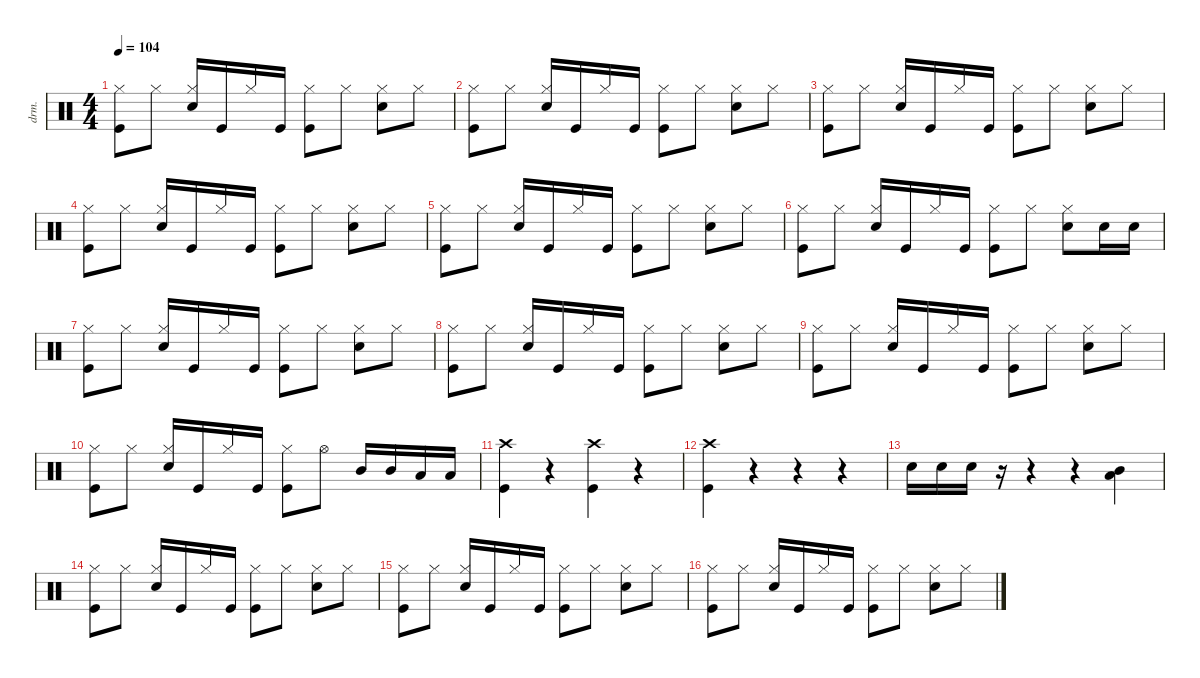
\defaultSystemsLayout 4
\hideDynamics
\bracketExtendMode nobrackets
\otherSystemsTrackNameOrientation horizontal
\track ("Drumkit" "drm.") {instrument percussion}
\staff {score}
\articulation defaults
\ts (4 4)
\tempo 104
\clef neutral
\ks c
("Kick (hit)" "Hi-Hat (closed)").8{dy mf beam Down} "Hi-Hat (closed)".8{beam Down} ("Hi-Hat (closed)" "Snare (hit) 2").16{beam Up} "Kick (hit)".16{beam Up} "Hi-Hat (closed)".16{beam Up} "Kick (hit)".16{beam Up} ("Hi-Hat (closed)" "Kick (hit)").8{beam Down} "Hi-Hat (closed)".8{beam Down} ("Hi-Hat (closed)" "Snare (hit) 2").8{beam Down} "Hi-Hat (closed)".8{beam Down} |
("Kick (hit)" "Hi-Hat (closed)").8{beam Down} "Hi-Hat (closed)".8{beam Down} ("Hi-Hat (closed)" "Snare (hit) 2").16{beam Up} "Kick (hit)".16{beam Up} "Hi-Hat (closed)".16{beam Up} "Kick (hit)".16{beam Up} ("Hi-Hat (closed)" "Kick (hit)").8{beam Down} "Hi-Hat (closed)".8{beam Down} ("Hi-Hat (closed)" "Snare (hit) 2").8{beam Down} "Hi-Hat (closed)".8{beam Down} |
("Kick (hit)" "Hi-Hat (closed)").8{beam Down} "Hi-Hat (closed)".8{beam Down} ("Hi-Hat (closed)" "Snare (hit) 2").16{beam Up} "Kick (hit)".16{beam Up} "Hi-Hat (closed)".16{beam Up} "Kick (hit)".16{beam Up} ("Hi-Hat (closed)" "Kick (hit)").8{beam Down} "Hi-Hat (closed)".8{beam Down} ("Hi-Hat (closed)" "Snare (hit) 2").8{beam Down} "Hi-Hat (closed)".8{beam Down} |
("Kick (hit)" "Hi-Hat (closed)").8{beam Down} "Hi-Hat (closed)".8{beam Down} ("Hi-Hat (closed)" "Snare (hit) 2").16{beam Up} "Kick (hit)".16{beam Up} "Hi-Hat (closed)".16{beam Up} "Kick (hit)".16{beam Up} ("Hi-Hat (closed)" "Kick (hit)").8{beam Down} "Hi-Hat (closed)".8{beam Down} ("Hi-Hat (closed)" "Snare (hit) 2").8{beam Down} "Hi-Hat (closed)".8{beam Down} |
("Kick (hit)" "Hi-Hat (closed)").8{beam Down} "Hi-Hat (closed)".8{beam Down} ("Hi-Hat (closed)" "Snare (hit) 2").16{beam Up} "Kick (hit)".16{beam Up} "Hi-Hat (closed)".16{beam Up} "Kick (hit)".16{beam Up} ("Hi-Hat (closed)" "Kick (hit)").8{beam Down} "Hi-Hat (closed)".8{beam Down} ("Hi-Hat (closed)" "Snare (hit) 2").8{beam Down} "Hi-Hat (closed)".8{beam Down} |
("Kick (hit)" "Hi-Hat (closed)").8{beam Down} "Hi-Hat (closed)".8{beam Down} ("Hi-Hat (closed)" "Snare (hit) 2").16{beam Up} "Kick (hit)".16{beam Up} "Hi-Hat (closed)".16{beam Up} "Kick (hit)".16{beam Up} ("Hi-Hat (closed)" "Kick (hit)").8{beam Down} "Hi-Hat (closed)".8{beam Down} ("Hi-Hat (closed)" "Snare (hit) 2").8{beam Down} "Snare (hit) 2".16{beam Down} "Snare (hit) 2".16{beam Down} |
("Kick (hit)" "Hi-Hat (closed)").8{beam Down} "Hi-Hat (closed)".8{beam Down} ("Hi-Hat (closed)" "Snare (hit) 2").16{beam Up} "Kick (hit)".16{beam Up} "Hi-Hat (closed)".16{beam Up} "Kick (hit)".16{beam Up} ("Hi-Hat (closed)" "Kick (hit)").8{beam Down} "Hi-Hat (closed)".8{beam Down} ("Hi-Hat (closed)" "Snare (hit) 2").8{beam Down} "Hi-Hat (closed)".8{beam Down} |
("Kick (hit)" "Hi-Hat (closed)").8{beam Down} "Hi-Hat (closed)".8{beam Down} ("Hi-Hat (closed)" "Snare (hit) 2").16{beam Up} "Kick (hit)".16{beam Up} "Hi-Hat (closed)".16{beam Up} "Kick (hit)".16{beam Up} ("Hi-Hat (closed)" "Kick (hit)").8{beam Down} "Hi-Hat (closed)".8{beam Down} ("Hi-Hat (closed)" "Snare (hit) 2").8{beam Down} "Hi-Hat (closed)".8{beam Down} |
("Kick (hit)" "Hi-Hat (closed)").8{beam Down} "Hi-Hat (closed)".8{beam Down} ("Hi-Hat (closed)" "Snare (hit) 2").16{beam Up} "Kick (hit)".16{beam Up} "Hi-Hat (closed)".16{beam Up} "Kick (hit)".16{beam Up} ("Hi-Hat (closed)" "Kick (hit)").8{beam Down} "Hi-Hat (closed)".8{beam Down} ("Hi-Hat (closed)" "Snare (hit) 2").8{beam Down} "Hi-Hat (closed)".8{beam Down} |
("Kick (hit)" "Hi-Hat (closed)").8{beam Down} "Hi-Hat (closed)".8{beam Down} ("Hi-Hat (closed)" "Snare (hit) 2").16{beam Up} "Kick (hit)".16{beam Up} "Hi-Hat (closed)".16{beam Up} "Kick (hit)".16{beam Up} ("Hi-Hat (closed)" "Kick (hit)").8{beam Down} "Hi-Hat (open)".8{beam Down} "Mid Tom (hit)".16{beam Up} "Mid Tom (hit)".16{beam Up} "Low Tom (hit)".16{beam Up} "Low Tom (hit)".16{beam Up} |
("Crash high (hit)" "Kick (hit)").4{beam Down} r.4{beam Down} ("Crash high (hit)" "Kick (hit)").4{beam Down} r.4{beam Down} |
("Crash high (hit)" "Kick (hit)").4{beam Down} r.4{beam Down} r.4{beam Down} r.4{beam Down} |
"Snare (hit) 2".16{beam Down} "Snare (hit) 2".16{beam Down} "Snare (hit) 2".16{beam Down} r.16{beam Down} r.4{beam Down} r.4{beam Down} ("Mid Tom (hit)" "Low Tom (hit)").4{beam Down} |
("Kick (hit)" "Hi-Hat (closed)").8{beam Down} "Hi-Hat (closed)".8{beam Down} ("Hi-Hat (closed)" "Snare (hit) 2").16{beam Up} "Kick (hit)".16{beam Up} "Hi-Hat (closed)".16{beam Up} "Kick (hit)".16{beam Up} ("Hi-Hat (closed)" "Kick (hit)").8{beam Down} "Hi-Hat (closed)".8{beam Down} ("Hi-Hat (closed)" "Snare (hit) 2").8{beam Down} "Hi-Hat (closed)".8{beam Down} |
("Kick (hit)" "Hi-Hat (closed)").8{beam Down} "Hi-Hat (closed)".8{beam Down} ("Hi-Hat (closed)" "Snare (hit) 2").16{beam Up} "Kick (hit)".16{beam Up} "Hi-Hat (closed)".16{beam Up} "Kick (hit)".16{beam Up} ("Hi-Hat (closed)" "Kick (hit)").8{beam Down} "Hi-Hat (closed)".8{beam Down} ("Hi-Hat (closed)" "Snare (hit) 2").8{beam Down} "Hi-Hat (closed)".8{beam Down} |
("Kick (hit)" "Hi-Hat (closed)").8{beam Down} "Hi-Hat (closed)".8{beam Down} ("Hi-Hat (closed)" "Snare (hit) 2").16{beam Up} "Kick (hit)".16{beam Up} "Hi-Hat (closed)".16{beam Up} "Kick (hit)".16{beam Up} ("Hi-Hat (closed)" "Kick (hit)").8{beam Down} "Hi-Hat (closed)".8{beam Down} ("Hi-Hat (closed)" "Snare (hit) 2").8{beam Down} "Hi-Hat (closed)".8{beam Down}
